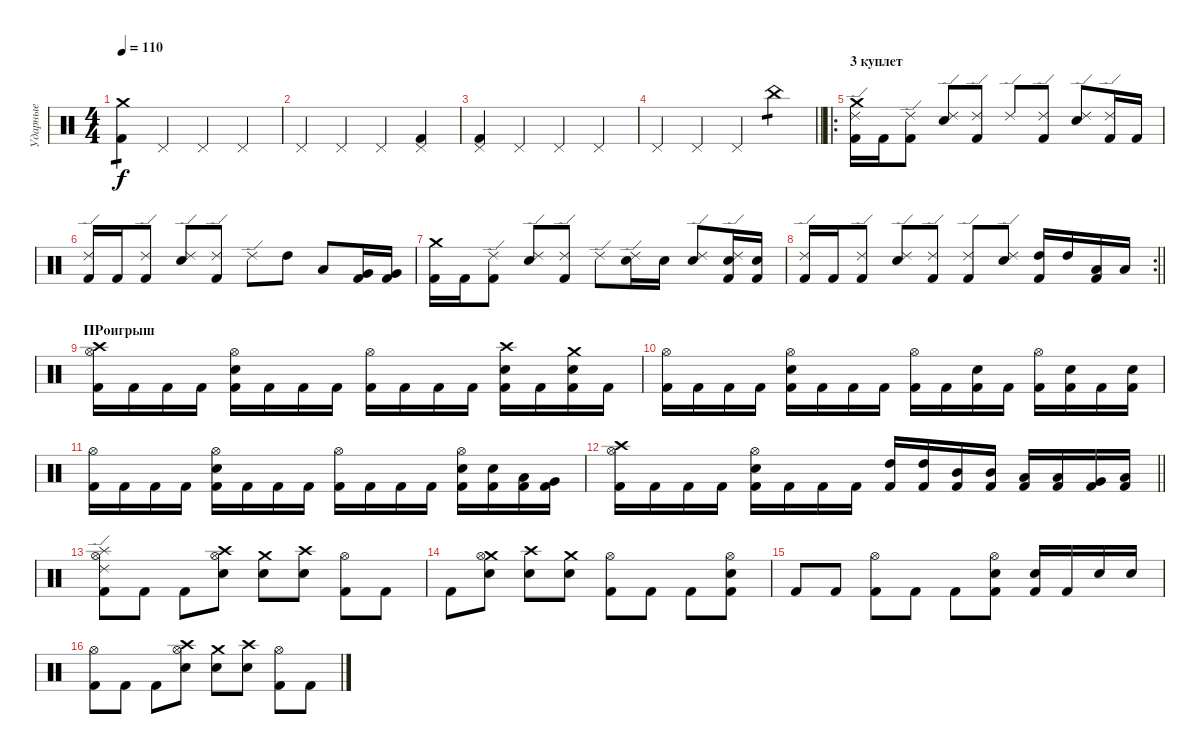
\track ("Ударные" "Ударные") {instrument percussion}
\staff {score}
\articulation defaults
\ts (4 4)
\tempo 110
\clef neutral
\ks c
("Crash medium (hit)" "Kick (hit) 2").4{tp 1 dy f} "Pedal Hi-Hat (hit)".4 "Pedal Hi-Hat (hit)".4 "Pedal Hi-Hat (hit)".4 |
"Pedal Hi-Hat (hit)".4 "Pedal Hi-Hat (hit)".4 "Pedal Hi-Hat (hit)".4 ("Pedal Hi-Hat (hit)" "Kick (hit) 2").4 |
("Pedal Hi-Hat (hit)" "Kick (hit) 2").4 "Pedal Hi-Hat (hit)".4 "Pedal Hi-Hat (hit)".4 "Pedal Hi-Hat (hit)".4 |
\barLineRight lightlight "Pedal Hi-Hat (hit)".4 "Pedal Hi-Hat (hit)".4 "Pedal Hi-Hat (hit)".4 "China (hit)".4{tp 1}
|
\ro
\section ("" "3 куплет")
("Crash medium (hit)" "Ride (edge) 2" "Kick (hit) 2").16 "Kick (hit) 2".16 ("Ride (edge) 2" "Kick (hit) 2").8 ("Ride (edge) 2" "Snare (hit) 2").8 ("Ride (edge) 2" "Kick (hit) 2").8 "Ride (edge) 2".8 ("Ride (edge) 2" "Kick (hit) 2").8 ("Ride (edge) 2" "Snare (hit) 2").8 ("Ride (edge) 2" "Kick (hit) 2").16 "Kick (hit) 2".16 |
("Ride (edge) 2" "Kick (hit) 2").16 "Kick (hit) 2".16 ("Ride (edge) 2" "Kick (hit) 2").8 ("Ride (edge) 2" "Snare (hit) 2").8 ("Ride (edge) 2" "Kick (hit) 2").8 "Ride (edge) 2".8 "High Tom (hit)".8 "Low Tom (hit)".8 ("Very Low Tom (hit)" "Kick (hit) 2").16 ("Very Low Tom (hit)" "Kick (hit) 2").16 |
("Crash medium (hit)" "Kick (hit) 2").16 "Kick (hit) 2".16 ("Ride (edge) 2" "Kick (hit) 2").8 ("Ride (edge) 2" "Snare (hit) 2").8 ("Ride (edge) 2" "Kick (hit) 2").8 "Ride (edge) 2".8 ("Ride (edge) 2" "Snare (hit) 2").16 "Snare (hit) 2".16 ("Ride (edge) 2" "Snare (hit) 2").8 ("Ride (edge) 2" "Snare (hit) 2" "Kick (hit) 2").16 ("Snare (hit) 2" "Kick (hit) 2").16 |
\rc 2
\barLineRight lightlight
("Ride (edge) 2" "Kick (hit) 2").16 "Kick (hit) 2".16 ("Ride (edge) 2" "Kick (hit) 2").8 ("Ride (edge) 2" "Snare (hit) 2").8 ("Ride (edge) 2" "Kick (hit) 2").8 ("Ride (edge) 2" "Kick (hit) 2").8 ("Ride (edge) 2" "Snare (hit) 2").8 ("High Tom (hit)" "Kick (hit) 2").16 "High Tom (hit)".16 ("Low Tom (hit)" "Kick (hit) 2").16 "Low Tom (hit)".16 |
\section ("" "ПРоигрыш")
("Crash high (hit)" "Hi-Hat (open)" "Kick (hit) 2").16 "Kick (hit) 2".16 "Kick (hit) 2".16 "Kick (hit) 2".16 ("Snare (hit) 2" "Hi-Hat (open)" "Kick (hit) 2").16 "Kick (hit) 2".16 "Kick (hit) 2".16 "Kick (hit) 2".16 ("Hi-Hat (open)" "Kick (hit) 2").16 "Kick (hit) 2".16 "Kick (hit) 2".16 "Kick (hit) 2".16 ("Snare (hit) 2" "Crash high (hit)" "Kick (hit) 2").16 "Kick (hit) 2".16 ("Snare (hit) 2" "Crash medium (hit)" "Kick (hit) 2").16 "Kick (hit) 2".16 |
("Hi-Hat (open)" "Kick (hit) 2").16 "Kick (hit) 2".16 "Kick (hit) 2".16 "Kick (hit) 2".16 ("Snare (hit) 2" "Hi-Hat (open)" "Kick (hit) 2").16 "Kick (hit) 2".16 "Kick (hit) 2".16 "Kick (hit) 2".16 ("Hi-Hat (open)" "Kick (hit) 2").16 "Kick (hit) 2".16 ("Snare (hit) 2" "Kick (hit) 2").16 "Kick (hit) 2".16 ("Hi-Hat (open)" "Kick (hit) 2").16 ("Snare (hit) 2" "Kick (hit) 2").16 "Kick (hit) 2".16 ("Snare (hit) 2" "Kick (hit) 2").16 |
("Hi-Hat (open)" "Kick (hit) 2").16 "Kick (hit) 2".16 "Kick (hit) 2".16 "Kick (hit) 2".16 ("Snare (hit) 2" "Hi-Hat (open)" "Kick (hit) 2").16 "Kick (hit) 2".16 "Kick (hit) 2".16 "Kick (hit) 2".16 ("Hi-Hat (open)" "Kick (hit) 2").16 "Kick (hit) 2".16 "Kick (hit) 2".16 "Kick (hit) 2".16 ("Snare (hit) 2" "Hi-Hat (open)" "Kick (hit) 2").16 ("Snare (hit) 2" "Kick (hit) 2").16 ("Low Tom (hit)" "Kick (hit) 2").16 ("Very Low Tom (hit)" "Kick (hit) 2").16 |
\barLineRight lightlight
("Crash high (hit)" "Hi-Hat (open)" "Kick (hit) 2").16 "Kick (hit) 2".16 "Kick (hit) 2".16 "Kick (hit) 2".16 ("Snare (hit) 2" "Hi-Hat (open)" "Kick (hit) 2").16 "Kick (hit) 2".16 "Kick (hit) 2".16 "Kick (hit) 2".16 ("High Tom (hit)" "Kick (hit) 2").16 ("High Tom (hit)" "Kick (hit) 2").16 ("Mid Tom (hit)" "Kick (hit) 2").16 ("Mid Tom (hit)" "Kick (hit) 2").16 ("Low Tom (hit)" "Kick (hit) 2").16 ("Low Tom (hit)" "Kick (hit) 2").16 ("Very Low Tom (hit)" "Kick (hit) 2").16 ("Low Floor Tom (hit)" "Kick (hit) 2").16 |
("Kick (hit) 2" "Ride (edge) 2" "Splash (hit)" "Hi-Hat (open)").8 "Kick (hit) 2".8 "Kick (hit) 2".8 ("Crash high (hit)" "Snare (hit) 2" "Hi-Hat (open)").8 ("Crash medium (hit)" "Snare (hit) 2").8 ("Crash high (hit)" "Snare (hit) 2").8 ("Kick (hit) 2" "Hi-Hat (open)").8 "Kick (hit) 2".8 |
"Kick (hit) 2".8 ("Crash medium (hit)" "Snare (hit) 2" "Hi-Hat (open)").8 ("Crash high (hit)" "Snare (hit) 2").8 ("Crash medium (hit)" "Snare (hit) 2").8 ("Kick (hit) 2" "Hi-Hat (open)").8 "Kick (hit) 2".8 "Kick (hit) 2".8 ("Kick (hit) 2" "Snare (hit) 2" "Hi-Hat (open)").8 |
"Kick (hit) 2".8 "Kick (hit) 2".8 ("Kick (hit) 2" "Hi-Hat (open)").8 "Kick (hit) 2".8 "Kick (hit) 2".8 ("Kick (hit) 2" "Snare (hit) 2" "Hi-Hat (open)").8 ("Kick (hit) 2" "Snare (hit) 2").16 "Kick (hit) 2".16 "Snare (hit) 2".16 "Snare (hit) 2".16 |
("Kick (hit) 2" "Hi-Hat (open)").8 "Kick (hit) 2".8 "Kick (hit) 2".8 ("Crash high (hit)" "Snare (hit) 2" "Hi-Hat (open)").8 ("Crash medium (hit)" "Snare (hit) 2").8 ("Crash high (hit)" "Snare (hit) 2").8 ("Kick (hit) 2" "Hi-Hat (open)").8 "Kick (hit) 2".8
